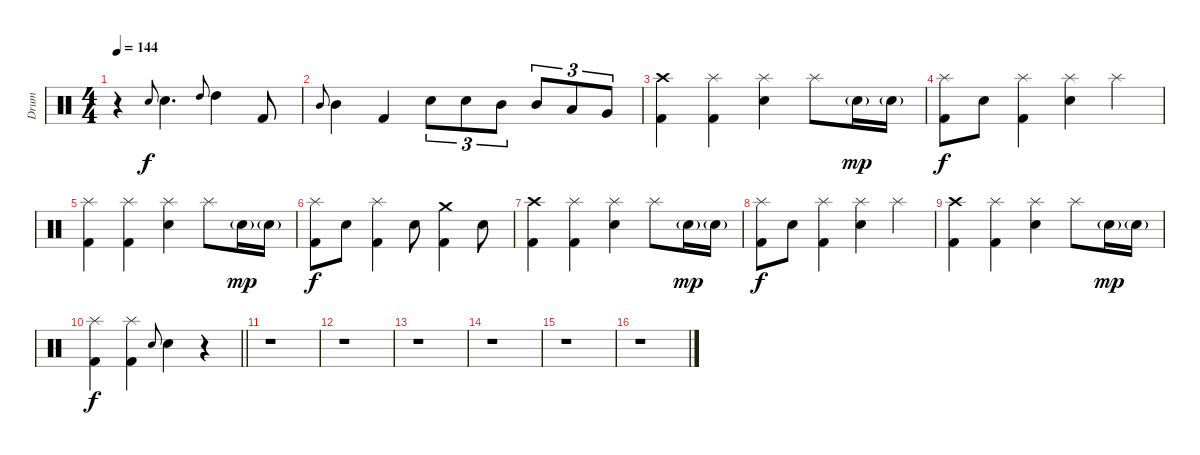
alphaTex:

\track ("Drum" "Drum") {instrument percussion}
\staff {score}
\articulation defaults
\ts (4 4)
\tempo 144
\clef neutral
\ks c
r.4{dy f} "Electric Snare (hit)".8{gr onbeat} "Electric Snare (hit)".4{d} "High Tom (hit)".8{gr onbeat} "High Tom (hit)".4 "Kick (hit) 2".8 |
"Mid Tom (hit)".8{gr onbeat} "Mid Tom (hit)".4 "Kick (hit) 2".4 "Electric Snare (hit)".8{tu (3 2)} "Electric Snare (hit)".8{tu (3 2)} "Mid Tom (hit)".8{tu (3 2)} "Mid Tom (hit)".8{tu (3 2)} "Low Tom (hit)".8{tu (3 2)} "Very Low Tom (hit)".8{tu (3 2)} |
("Crash high (hit)" "Kick (hit) 2").4 ("Splash (hit)" "Kick (hit) 2").4 ("Splash (hit)" "Electric Snare (hit)").4 "Splash (hit)".8 "Electric Snare (hit)"{g}.16{dy mp} "Electric Snare (hit)"{g}.16 |
("Splash (hit)" "Kick (hit) 2").8{dy f} "Electric Snare (hit)".8 ("Splash (hit)" "Kick (hit) 2").4 ("Splash (hit)" "Electric Snare (hit)").4 "Splash (hit)".4 |
("Splash (hit)" "Kick (hit) 2").4 ("Splash (hit)" "Kick (hit) 2").4 ("Splash (hit)" "Electric Snare (hit)").4 "Splash (hit)".8 "Electric Snare (hit)"{g}.16{dy mp} "Electric Snare (hit)"{g}.16 |
("Splash (hit)" "Kick (hit) 2").8{dy f} "Electric Snare (hit)".8 ("Splash (hit)" "Kick (hit) 2").4 "Electric Snare (hit)".8 ("Crash medium (hit)" "Kick (hit) 2").4 "Electric Snare (hit)".8 |
("Crash high (hit)" "Kick (hit) 2").4 ("Splash (hit)" "Kick (hit) 2").4 ("Splash (hit)" "Electric Snare (hit)").4 "Splash (hit)".8 "Electric Snare (hit)"{g}.16{dy mp} "Electric Snare (hit)"{g}.16 |
("Splash (hit)" "Kick (hit) 2").8{dy f} "Electric Snare (hit)".8 ("Splash (hit)" "Kick (hit) 2").4 ("Splash (hit)" "Electric Snare (hit)").4 "Splash (hit)".4 |
("Crash high (hit)" "Kick (hit) 2").4 ("Splash (hit)" "Kick (hit) 2").4 ("Splash (hit)" "Electric Snare (hit)").4 "Splash (hit)".8 "Electric Snare (hit)"{g}.16{dy mp} "Electric Snare (hit)"{g}.16 |
\barLineRight lightlight
("Splash (hit)" "Kick (hit) 2").4{dy f} ("Splash (hit)" "Kick (hit) 2").4 "Electric Snare (hit)".8{gr onbeat} "Electric Snare (hit)".4 r.4 |
r.1 |
r.1 |
r.1 |
r.1 |
r.1 |
r.1
